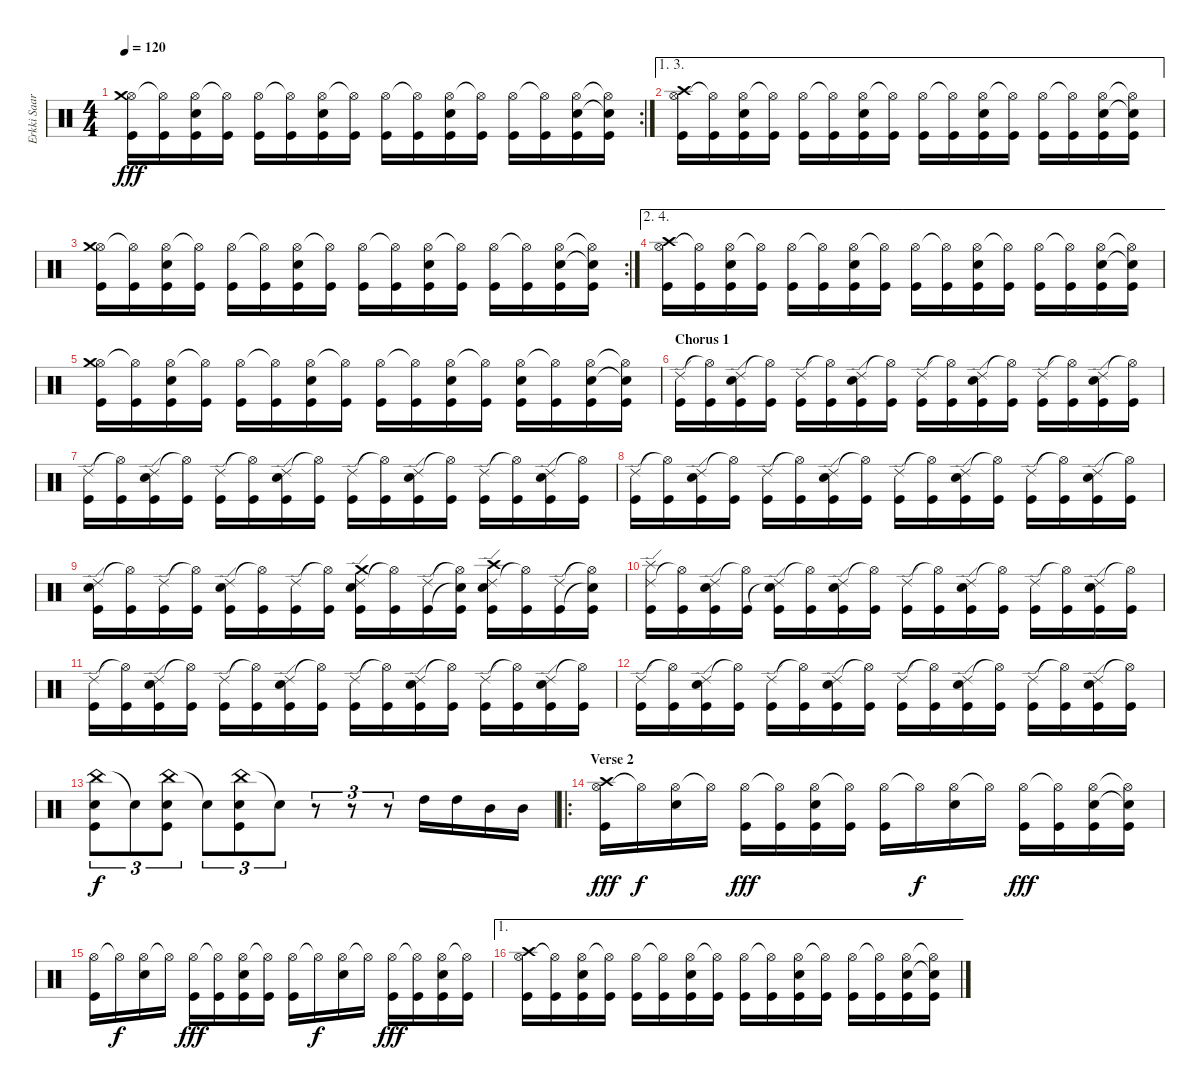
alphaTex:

\track ("Erkki Saarinen" "Erkki Saar") {instrument percussion}
\staff {score}
\articulation defaults
\rc 2
\ts (4 4)
\tempo 120
\clef neutral
\ks c
("Hi-Hat (open)" "Crash medium (hit)" "Kick (hit)").16{dy fff} ("Hi-Hat (open)"{t} "Kick (hit)").16 ("Hi-Hat (open)" "Snare (hit) 2" "Kick (hit)").16 ("Hi-Hat (open)"{t} "Kick (hit)").16 ("Hi-Hat (open)" "Kick (hit)").16 ("Hi-Hat (open)"{t} "Kick (hit)").16 ("Hi-Hat (open)" "Snare (hit) 2" "Kick (hit)").16 ("Hi-Hat (open)"{t} "Kick (hit)").16 ("Hi-Hat (open)" "Kick (hit)").16 ("Hi-Hat (open)"{t} "Kick (hit)").16 ("Hi-Hat (open)" "Snare (hit) 2" "Kick (hit)").16 ("Hi-Hat (open)"{t} "Kick (hit)").16 ("Hi-Hat (open)" "Kick (hit)").16 ("Hi-Hat (open)"{t} "Kick (hit)").16 ("Hi-Hat (open)" "Snare (hit) 2" "Kick (hit)").16 ("Hi-Hat (open)"{t} "Snare (hit)"{t} "Kick (hit)").16 |
\ae (1 3)
("Hi-Hat (open)" "Crash high (hit)" "Kick (hit)").16 ("Hi-Hat (open)"{t} "Kick (hit)").16 ("Hi-Hat (open)" "Snare (hit) 2" "Kick (hit)").16 ("Hi-Hat (open)"{t} "Kick (hit)").16 ("Hi-Hat (open)" "Kick (hit)").16 ("Hi-Hat (open)"{t} "Kick (hit)").16 ("Hi-Hat (open)" "Snare (hit) 2" "Kick (hit)").16 ("Hi-Hat (open)"{t} "Kick (hit)").16 ("Hi-Hat (open)" "Kick (hit)").16 ("Hi-Hat (open)"{t} "Kick (hit)").16 ("Hi-Hat (open)" "Snare (hit) 2" "Kick (hit)").16 ("Hi-Hat (open)"{t} "Kick (hit)").16 ("Hi-Hat (open)" "Kick (hit)").16 ("Hi-Hat (open)"{t} "Kick (hit)").16 ("Hi-Hat (open)" "Snare (hit) 2" "Kick (hit)").16 ("Hi-Hat (open)"{t} "Snare (hit)"{t} "Kick (hit)").16 |
\rc 2
("Hi-Hat (open)" "Crash medium (hit)" "Kick (hit)").16 ("Hi-Hat (open)"{t} "Kick (hit)").16 ("Hi-Hat (open)" "Snare (hit) 2" "Kick (hit)").16 ("Hi-Hat (open)"{t} "Kick (hit)").16 ("Hi-Hat (open)" "Kick (hit)").16 ("Hi-Hat (open)"{t} "Kick (hit)").16 ("Hi-Hat (open)" "Snare (hit) 2" "Kick (hit)").16 ("Hi-Hat (open)"{t} "Kick (hit)").16 ("Hi-Hat (open)" "Kick (hit)").16 ("Hi-Hat (open)"{t} "Kick (hit)").16 ("Hi-Hat (open)" "Snare (hit) 2" "Kick (hit)").16 ("Hi-Hat (open)"{t} "Kick (hit)").16 ("Hi-Hat (open)" "Kick (hit)").16 ("Hi-Hat (open)"{t} "Kick (hit)").16 ("Hi-Hat (open)" "Snare (hit) 2" "Kick (hit)").16 ("Hi-Hat (open)"{t} "Snare (hit)"{t} "Kick (hit)").16 |
\ae (2 4)
("Hi-Hat (open)" "Crash high (hit)" "Kick (hit)").16 ("Hi-Hat (open)"{t} "Kick (hit)").16 ("Hi-Hat (open)" "Snare (hit) 2" "Kick (hit)").16 ("Hi-Hat (open)"{t} "Kick (hit)").16 ("Hi-Hat (open)" "Kick (hit)").16 ("Hi-Hat (open)"{t} "Kick (hit)").16 ("Hi-Hat (open)" "Snare (hit) 2" "Kick (hit)").16 ("Hi-Hat (open)"{t} "Kick (hit)").16 ("Hi-Hat (open)" "Kick (hit)").16 ("Hi-Hat (open)"{t} "Kick (hit)").16 ("Hi-Hat (open)" "Snare (hit) 2" "Kick (hit)").16 ("Hi-Hat (open)"{t} "Kick (hit)").16 ("Hi-Hat (open)" "Kick (hit)").16 ("Hi-Hat (open)"{t} "Kick (hit)").16 ("Hi-Hat (open)" "Snare (hit) 2" "Kick (hit)").16 ("Hi-Hat (open)"{t} "Snare (hit)"{t} "Kick (hit)").16 |
("Hi-Hat (open)" "Crash medium (hit)" "Kick (hit)").16 ("Hi-Hat (open)"{t} "Kick (hit)").16 ("Hi-Hat (open)" "Snare (hit) 2" "Kick (hit)").16 ("Hi-Hat (open)"{t} "Kick (hit)").16 ("Hi-Hat (open)" "Kick (hit)").16 ("Hi-Hat (open)"{t} "Kick (hit)").16 ("Hi-Hat (open)" "Snare (hit) 2" "Kick (hit)").16 ("Hi-Hat (open)"{t} "Kick (hit)").16 ("Hi-Hat (open)" "Kick (hit)").16 ("Hi-Hat (open)"{t} "Kick (hit)").16 ("Hi-Hat (open)" "Snare (hit) 2" "Kick (hit)").16 ("Hi-Hat (open)"{t} "Kick (hit)").16 ("Hi-Hat (open)" "Snare (hit) 2" "Kick (hit)").16 ("Hi-Hat (open)"{t} "Kick (hit)").16 ("Hi-Hat (open)" "Snare (hit) 2" "Kick (hit)").16 ("Hi-Hat (open)"{t} "Snare (hit)"{t} "Kick (hit)").16 |
\section ("" "Chorus 1")
("Ride (edge) 2" "Kick (hit)").16 ("Hi-Hat (open)"{t} "Kick (hit)").16 ("Ride (edge) 2" "Snare (hit) 2" "Kick (hit)").16 ("Hi-Hat (open)"{t} "Kick (hit)").16 ("Ride (edge) 2" "Kick (hit)").16 ("Hi-Hat (open)"{t} "Kick (hit)").16 ("Ride (edge) 2" "Snare (hit) 2" "Kick (hit)").16 ("Hi-Hat (open)"{t} "Kick (hit)").16 ("Ride (edge) 2" "Kick (hit)").16 ("Hi-Hat (open)"{t} "Kick (hit)").16 ("Ride (edge) 2" "Snare (hit) 2" "Kick (hit)").16 ("Hi-Hat (open)"{t} "Kick (hit)").16 ("Ride (edge) 2" "Kick (hit)").16 ("Hi-Hat (open)"{t} "Kick (hit)").16 ("Ride (edge) 2" "Snare (hit) 2" "Kick (hit)").16 ("Hi-Hat (open)"{t} "Kick (hit)").16 |
("Ride (edge) 2" "Kick (hit)").16 ("Hi-Hat (open)"{t} "Kick (hit)").16 ("Ride (edge) 2" "Snare (hit) 2" "Kick (hit)").16 ("Hi-Hat (open)"{t} "Kick (hit)").16 ("Ride (edge) 2" "Kick (hit)").16 ("Hi-Hat (open)"{t} "Kick (hit)").16 ("Ride (edge) 2" "Snare (hit) 2" "Kick (hit)").16 ("Hi-Hat (open)"{t} "Kick (hit)").16 ("Ride (edge) 2" "Kick (hit)").16 ("Hi-Hat (open)"{t} "Kick (hit)").16 ("Ride (edge) 2" "Snare (hit) 2" "Kick (hit)").16 ("Hi-Hat (open)"{t} "Kick (hit)").16 ("Ride (edge) 2" "Kick (hit)").16 ("Hi-Hat (open)"{t} "Kick (hit)").16 ("Ride (edge) 2" "Snare (hit) 2" "Kick (hit)").16 ("Hi-Hat (open)"{t} "Kick (hit)").16 |
("Ride (edge) 2" "Kick (hit)").16 ("Hi-Hat (open)"{t} "Kick (hit)").16 ("Ride (edge) 2" "Snare (hit) 2" "Kick (hit)").16 ("Hi-Hat (open)"{t} "Kick (hit)").16 ("Ride (edge) 2" "Kick (hit)").16 ("Hi-Hat (open)"{t} "Kick (hit)").16 ("Ride (edge) 2" "Snare (hit) 2" "Kick (hit)").16 ("Hi-Hat (open)"{t} "Kick (hit)").16 ("Ride (edge) 2" "Kick (hit)").16 ("Hi-Hat (open)"{t} "Kick (hit)").16 ("Ride (edge) 2" "Snare (hit) 2" "Kick (hit)").16 ("Hi-Hat (open)"{t} "Kick (hit)").16 ("Ride (edge) 2" "Kick (hit)").16 ("Hi-Hat (open)"{t} "Kick (hit)").16 ("Ride (edge) 2" "Snare (hit) 2" "Kick (hit)").16 ("Hi-Hat (open)"{t} "Kick (hit)").16 |
("Ride (edge) 2" "Snare (hit) 2" "Kick (hit)").16 ("Hi-Hat (open)"{t} "Kick (hit)").16 ("Ride (edge) 2" "Kick (hit)").16 ("Hi-Hat (open)"{t} "Kick (hit)").16 ("Ride (edge) 2" "Snare (hit) 2" "Kick (hit)").16 ("Hi-Hat (open)"{t} "Kick (hit)").16 ("Ride (edge) 2" "Kick (hit)").16 ("Hi-Hat (open)"{t} "Kick (hit)").16 ("Ride (edge) 2" "Crash medium (hit)" "Snare (hit) 2" "Kick (hit)").16 ("Hi-Hat (open)"{t} "Kick (hit)").16 ("Ride (edge) 2" "Kick (hit)").16 ("Hi-Hat (open)"{t} "Snare (hit)"{t} "Kick (hit)").16 ("Ride (edge) 2" "Crash high (hit)" "Snare (hit) 2" "Kick (hit)").16 ("Hi-Hat (open)"{t} "Kick (hit)").16 ("Ride (edge) 2" "Kick (hit)").16 ("Hi-Hat (open)"{t} "Snare (hit)"{t} "Kick (hit)").16 |
("Ride (edge) 2" "Splash (hit)" "Kick (hit)").16 ("Hi-Hat (open)"{t} "Kick (hit)").16 ("Ride (edge) 2" "Snare (hit) 2" "Kick (hit)").16 ("Hi-Hat (open)"{t} "Kick (hit)").16 ("Ride (edge) 2" "Snare (hit)"{t} "Kick (hit)").16 ("Hi-Hat (open)"{t} "Kick (hit)").16 ("Ride (edge) 2" "Snare (hit) 2" "Kick (hit)").16 ("Hi-Hat (open)"{t} "Kick (hit)").16 ("Ride (edge) 2" "Kick (hit)").16 ("Hi-Hat (open)"{t} "Kick (hit)").16 ("Ride (edge) 2" "Snare (hit) 2" "Kick (hit)").16 ("Hi-Hat (open)"{t} "Kick (hit)").16 ("Ride (edge) 2" "Kick (hit)").16 ("Hi-Hat (open)"{t} "Kick (hit)").16 ("Ride (edge) 2" "Snare (hit) 2" "Kick (hit)").16 ("Hi-Hat (open)"{t} "Kick (hit)").16 |
("Ride (edge) 2" "Kick (hit)").16 ("Hi-Hat (open)"{t} "Kick (hit)").16 ("Ride (edge) 2" "Snare (hit) 2" "Kick (hit)").16 ("Hi-Hat (open)"{t} "Kick (hit)").16 ("Ride (edge) 2" "Kick (hit)").16 ("Hi-Hat (open)"{t} "Kick (hit)").16 ("Ride (edge) 2" "Snare (hit) 2" "Kick (hit)").16 ("Hi-Hat (open)"{t} "Kick (hit)").16 ("Ride (edge) 2" "Kick (hit)").16 ("Hi-Hat (open)"{t} "Kick (hit)").16 ("Ride (edge) 2" "Snare (hit) 2" "Kick (hit)").16 ("Hi-Hat (open)"{t} "Kick (hit)").16 ("Ride (edge) 2" "Kick (hit)").16 ("Hi-Hat (open)"{t} "Kick (hit)").16 ("Ride (edge) 2" "Snare (hit) 2" "Kick (hit)").16 ("Hi-Hat (open)"{t} "Kick (hit)").16 |
("Ride (edge) 2" "Kick (hit)").16 ("Hi-Hat (open)"{t} "Kick (hit)").16 ("Ride (edge) 2" "Snare (hit) 2" "Kick (hit)").16 ("Hi-Hat (open)"{t} "Kick (hit)").16 ("Ride (edge) 2" "Kick (hit)").16 ("Hi-Hat (open)"{t} "Kick (hit)").16 ("Ride (edge) 2" "Snare (hit) 2" "Kick (hit)").16 ("Hi-Hat (open)"{t} "Kick (hit)").16 ("Ride (edge) 2" "Kick (hit)").16 ("Hi-Hat (open)"{t} "Kick (hit)").16 ("Ride (edge) 2" "Snare (hit) 2" "Kick (hit)").16 ("Hi-Hat (open)"{t} "Kick (hit)").16 ("Ride (edge) 2" "Kick (hit)").16 ("Hi-Hat (open)"{t} "Kick (hit)").16 ("Ride (edge) 2" "Snare (hit) 2" "Kick (hit)").16 ("Hi-Hat (open)"{t} "Kick (hit)").16 |
("China (hit)" "Snare (hit) 2" "Kick (hit)").8{tu (3 2) dy f} "Snare (hit)"{t}.8{tu (3 2)} ("China (hit)" "Snare (hit) 2" "Kick (hit)").8{tu (3 2)} "Snare (hit)"{t}.8{tu (3 2)} ("China (hit)" "Snare (hit) 2" "Kick (hit)").8{tu (3 2)} "Snare (hit)"{t}.8{tu (3 2)} r.8{tu (3 2)} r.8{tu (3 2)} r.8{tu (3 2)} "High Tom (hit)".16 "High Tom (hit)".16 "Mid Tom (hit)".16 "Mid Tom (hit)".16 |
\ro
\section ("" "Verse 2")
("Hi-Hat (open)" "Crash high (hit)" "Kick (hit)").16{dy fff} "Hi-Hat (open)"{t}.16{dy f} ("Hi-Hat (open)" "Snare (hit) 2").16 "Hi-Hat (open)"{t}.16 ("Hi-Hat (open)" "Kick (hit)").16{dy fff} ("Hi-Hat (open)"{t} "Kick (hit)").16 ("Hi-Hat (open)" "Snare (hit) 2" "Kick (hit)").16 ("Hi-Hat (open)"{t} "Kick (hit)").16 ("Hi-Hat (open)" "Kick (hit)").16 "Hi-Hat (open)"{t}.16{dy f} ("Hi-Hat (open)" "Snare (hit) 2").16 "Hi-Hat (open)"{t}.16 ("Hi-Hat (open)" "Kick (hit)").16{dy fff} ("Hi-Hat (open)"{t} "Kick (hit)").16 ("Hi-Hat (open)" "Snare (hit) 2" "Kick (hit)").16 ("Hi-Hat (open)"{t} "Snare (hit)"{t} "Kick (hit)").16 |
("Hi-Hat (open)" "Kick (hit)").16 "Hi-Hat (open)"{t}.16{dy f} ("Hi-Hat (open)" "Snare (hit) 2").16 "Hi-Hat (open)"{t}.16 ("Hi-Hat (open)" "Kick (hit)").16{dy fff} ("Hi-Hat (open)"{t} "Kick (hit)").16 ("Hi-Hat (open)" "Snare (hit) 2" "Kick (hit)").16 ("Hi-Hat (open)"{t} "Kick (hit)").16 ("Hi-Hat (open)" "Kick (hit)").16 "Hi-Hat (open)"{t}.16{dy f} ("Hi-Hat (open)" "Snare (hit) 2").16 "Hi-Hat (open)"{t}.16 ("Hi-Hat (open)" "Kick (hit)").16{dy fff} ("Hi-Hat (open)"{t} "Kick (hit)").16 ("Hi-Hat (open)" "Snare (hit) 2" "Kick (hit)").16 ("Hi-Hat (open)"{t} "Kick (hit)").16 |
\ae 1
("Hi-Hat (open)" "Crash high (hit)" "Kick (hit)").16 ("Hi-Hat (open)"{t} "Kick (hit)").16 ("Hi-Hat (open)" "Snare (hit) 2" "Kick (hit)").16 ("Hi-Hat (open)"{t} "Kick (hit)").16 ("Hi-Hat (open)" "Kick (hit)").16 ("Hi-Hat (open)"{t} "Kick (hit)").16 ("Hi-Hat (open)" "Snare (hit) 2" "Kick (hit)").16 ("Hi-Hat (open)"{t} "Kick (hit)").16 ("Hi-Hat (open)" "Kick (hit)").16 ("Hi-Hat (open)"{t} "Kick (hit)").16 ("Hi-Hat (open)" "Snare (hit) 2" "Kick (hit)").16 ("Hi-Hat (open)"{t} "Kick (hit)").16 ("Hi-Hat (open)" "Kick (hit)").16 ("Hi-Hat (open)"{t} "Kick (hit)").16 ("Hi-Hat (open)" "Snare (hit) 2" "Kick (hit)").16 ("Hi-Hat (open)"{t} "Snare (hit)"{t} "Kick (hit)").16
